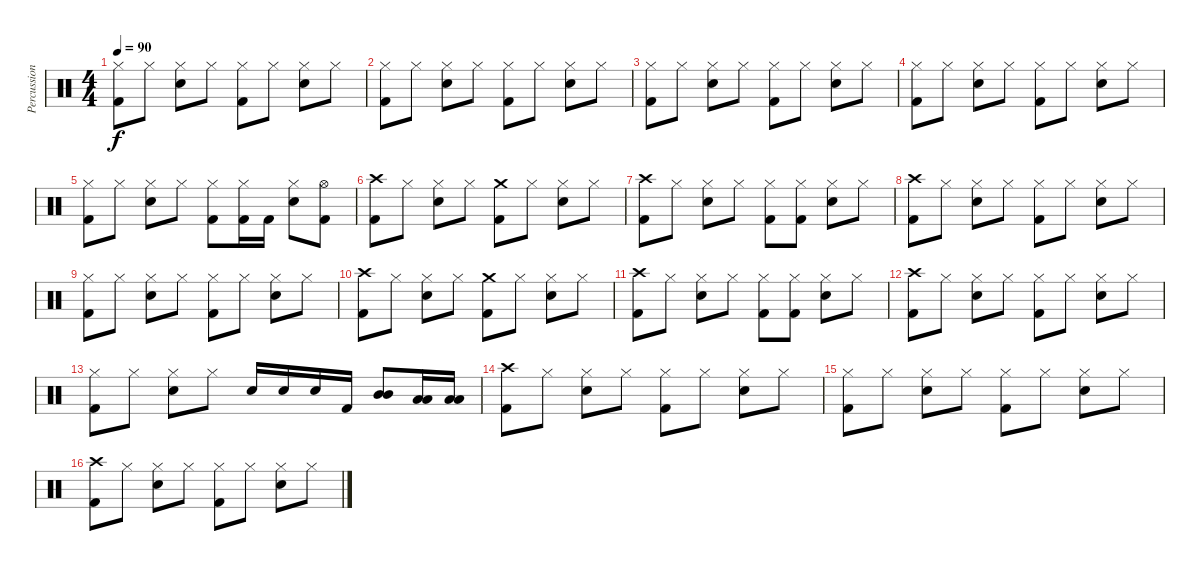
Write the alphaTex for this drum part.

\track ("Percussion" "Percussion") {instrument percussion}
\staff {score}
\articulation defaults
\ts (4 4)
\tempo 90
\clef neutral
\ks c
("Kick (hit) 2" "Hi-Hat (closed)").8{dy f} "Hi-Hat (closed)".8 ("Snare (hit) 2" "Hi-Hat (closed)").8 "Hi-Hat (closed)".8 ("Kick (hit) 2" "Hi-Hat (closed)").8 "Hi-Hat (closed)".8 ("Snare (hit) 2" "Hi-Hat (closed)").8 "Hi-Hat (closed)".8 |
("Kick (hit) 2" "Hi-Hat (closed)").8 "Hi-Hat (closed)".8 ("Snare (hit) 2" "Hi-Hat (closed)").8 "Hi-Hat (closed)".8 ("Kick (hit) 2" "Hi-Hat (closed)").8 "Hi-Hat (closed)".8 ("Snare (hit) 2" "Hi-Hat (closed)").8 "Hi-Hat (closed)".8 |
("Kick (hit) 2" "Hi-Hat (closed)").8 "Hi-Hat (closed)".8 ("Snare (hit) 2" "Hi-Hat (closed)").8 "Hi-Hat (closed)".8 ("Kick (hit) 2" "Hi-Hat (closed)").8 "Hi-Hat (closed)".8 ("Snare (hit) 2" "Hi-Hat (closed)").8 "Hi-Hat (closed)".8 |
("Kick (hit) 2" "Hi-Hat (closed)").8 "Hi-Hat (closed)".8 ("Snare (hit) 2" "Hi-Hat (closed)").8 "Hi-Hat (closed)".8 ("Kick (hit) 2" "Hi-Hat (closed)").8 "Hi-Hat (closed)".8 ("Snare (hit) 2" "Hi-Hat (closed)").8 "Hi-Hat (closed)".8 |
("Kick (hit) 2" "Hi-Hat (closed)").8 "Hi-Hat (closed)".8 ("Snare (hit) 2" "Hi-Hat (closed)").8 "Hi-Hat (closed)".8 ("Kick (hit) 2" "Hi-Hat (closed)").8 ("Kick (hit) 2" "Hi-Hat (closed)").16 "Kick (hit) 2".16 ("Snare (hit) 2" "Hi-Hat (closed)").8 ("Kick (hit) 2" "Hi-Hat (open)").8 |
("Kick (hit) 2" "Crash high (hit)").8 "Hi-Hat (closed)".8 ("Snare (hit) 2" "Hi-Hat (closed)").8 "Hi-Hat (closed)".8 ("Kick (hit) 2" "Crash medium (hit)").8 "Hi-Hat (closed)".8 ("Snare (hit) 2" "Hi-Hat (closed)").8 "Hi-Hat (closed)".8 |
("Kick (hit) 2" "Crash high (hit)").8 "Hi-Hat (closed)".8 ("Snare (hit) 2" "Hi-Hat (closed)").8 "Hi-Hat (closed)".8 ("Kick (hit) 2" "Hi-Hat (closed)").8 ("Kick (hit) 2" "Hi-Hat (closed)").8 ("Snare (hit) 2" "Hi-Hat (closed)").8 "Hi-Hat (closed)".8 |
("Kick (hit) 2" "Crash high (hit)").8 "Hi-Hat (closed)".8 ("Snare (hit) 2" "Hi-Hat (closed)").8 "Hi-Hat (closed)".8 ("Kick (hit) 2" "Hi-Hat (closed)").8 "Hi-Hat (closed)".8 ("Snare (hit) 2" "Hi-Hat (closed)").8 "Hi-Hat (closed)".8 |
("Kick (hit) 2" "Hi-Hat (closed)").8 "Hi-Hat (closed)".8 ("Snare (hit) 2" "Hi-Hat (closed)").8 "Hi-Hat (closed)".8 ("Kick (hit) 2" "Hi-Hat (closed)").8 "Hi-Hat (closed)".8 ("Snare (hit) 2" "Hi-Hat (closed)").8 "Hi-Hat (closed)".8 |
("Kick (hit) 2" "Crash high (hit)").8 "Hi-Hat (closed)".8 ("Snare (hit) 2" "Hi-Hat (closed)").8 "Hi-Hat (closed)".8 ("Kick (hit) 2" "Crash medium (hit)").8 "Hi-Hat (closed)".8 ("Snare (hit) 2" "Hi-Hat (closed)").8 "Hi-Hat (closed)".8 |
("Kick (hit) 2" "Crash high (hit)").8 "Hi-Hat (closed)".8 ("Snare (hit) 2" "Hi-Hat (closed)").8 "Hi-Hat (closed)".8 ("Kick (hit) 2" "Hi-Hat (closed)").8 ("Kick (hit) 2" "Hi-Hat (closed)").8 ("Snare (hit) 2" "Hi-Hat (closed)").8 "Hi-Hat (closed)".8 |
("Kick (hit) 2" "Crash high (hit)").8 "Hi-Hat (closed)".8 ("Snare (hit) 2" "Hi-Hat (closed)").8 "Hi-Hat (closed)".8 ("Kick (hit) 2" "Hi-Hat (closed)").8 "Hi-Hat (closed)".8 ("Snare (hit) 2" "Hi-Hat (closed)").8 "Hi-Hat (closed)".8 |
("Kick (hit) 2" "Hi-Hat (closed)").8 "Hi-Hat (closed)".8 ("Snare (hit) 2" "Hi-Hat (closed)").8 "Hi-Hat (closed)".8 "Snare (hit) 2".16 "Snare (hit) 2".16 "Snare (hit) 2".16 "Kick (hit) 2".16 ("Mid Tom (hit)" "Mid Tom (hit)").8 ("Low Tom (hit)" "Low Tom (hit)").16 ("Low Tom (hit)" "Low Tom (hit)").16 |
("Kick (hit) 2" "Crash high (hit)").8 "Hi-Hat (closed)".8 ("Snare (hit) 2" "Hi-Hat (closed)").8 "Hi-Hat (closed)".8 ("Kick (hit) 2" "Hi-Hat (closed)").8 "Hi-Hat (closed)".8 ("Snare (hit) 2" "Hi-Hat (closed)").8 "Hi-Hat (closed)".8 |
("Kick (hit) 2" "Hi-Hat (closed)").8 "Hi-Hat (closed)".8 ("Snare (hit) 2" "Hi-Hat (closed)").8 "Hi-Hat (closed)".8 ("Kick (hit) 2" "Hi-Hat (closed)").8 "Hi-Hat (closed)".8 ("Snare (hit) 2" "Hi-Hat (closed)").8 "Hi-Hat (closed)".8 |
("Kick (hit) 2" "Crash high (hit)").8 "Hi-Hat (closed)".8 ("Snare (hit) 2" "Hi-Hat (closed)").8 "Hi-Hat (closed)".8 ("Kick (hit) 2" "Hi-Hat (closed)").8 "Hi-Hat (closed)".8 ("Snare (hit) 2" "Hi-Hat (closed)").8 "Hi-Hat (closed)".8
